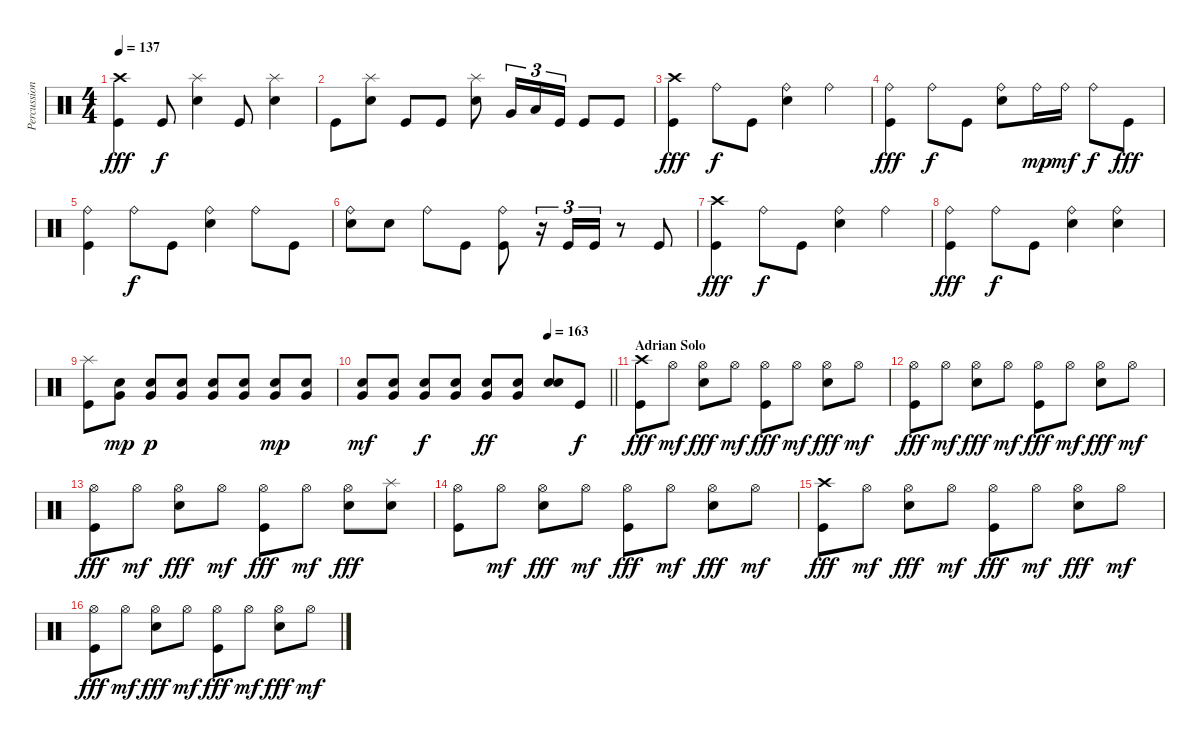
\track ("Percussion/Nicko McBrain" "Percussion") {instrument percussion}
\staff {score}
\articulation defaults
\ts (4 4)
\tempo 137
\clef neutral
\ks c
("Crash high (hit)" "Kick (hit)").4{dy fff} "Kick (hit)".8{dy f} ("Splash (hit)" "Electric Snare (hit)").4 "Kick (hit)".8 ("Splash (hit)" "Electric Snare (hit)").4 |
"Kick (hit)".8 ("Splash (hit)" "Electric Snare (hit)").8 "Kick (hit)".8 "Kick (hit)".8 ("Splash (hit)" "Electric Snare (hit)").8 "Very Low Tom (hit)".16{tu (3 2)} "Low Floor Tom (hit)".16{tu (3 2)} "Kick (hit)".16{tu (3 2)} "Kick (hit)".8 "Kick (hit)".8 |
("Crash high (hit)" "Kick (hit)").4{dy fff} "Ride (bell)".8{dy f} "Kick (hit)".8 ("Ride (bell)" "Electric Snare (hit)").4 "Ride (bell)".4 |
("Ride (bell)" "Kick (hit)").4{dy fff} "Ride (bell)".8{dy f} "Kick (hit)".8 ("Ride (bell)" "Electric Snare (hit)").8 "Ride (bell)".16{dy mp} "Ride (bell)".16{dy mf} "Ride (bell)".8{dy f} "Kick (hit)".8{dy fff} |
("Ride (bell)" "Kick (hit)").4 "Ride (bell)".8{dy f} "Kick (hit)".8 ("Ride (bell)" "Electric Snare (hit)").4 "Ride (bell)".8 "Kick (hit)".8 |
("Ride (bell)" "Electric Snare (hit)").8 "Electric Snare (hit)".8 "Ride (bell)".8 "Kick (hit)".8 ("Ride (bell)" "Kick (hit)").8 r.16{tu (3 2)} "Kick (hit)".16{tu (3 2)} "Kick (hit)".16{tu (3 2)} r.8 "Kick (hit)".8 |
("Crash high (hit)" "Kick (hit)").4{dy fff} "Ride (bell)".8{dy f} "Kick (hit)".8 ("Ride (bell)" "Electric Snare (hit)").4 "Ride (bell)".4 |
("Ride (bell)" "Kick (hit)").4{dy fff} "Ride (bell)".8{dy f} "Kick (hit)".8 ("Ride (bell)" "Electric Snare (hit)").4 ("Ride (bell)" "Electric Snare (hit)").4 |
("Splash (hit)" "Kick (hit)").8 ("Very Low Tom (hit)" "Electric Snare (hit)").8{dy mp} ("Very Low Tom (hit)" "Electric Snare (hit)").8{dy p} ("Very Low Tom (hit)" "Electric Snare (hit)").8 ("Very Low Tom (hit)" "Electric Snare (hit)").8 ("Very Low Tom (hit)" "Electric Snare (hit)").8 ("Very Low Tom (hit)" "Electric Snare (hit)").8{dy mp} ("Very Low Tom (hit)" "Electric Snare (hit)").8 |
\tempo (163 0.75)
\barLineRight lightlight
("Very Low Tom (hit)" "Electric Snare (hit)").8{dy mf} ("Very Low Tom (hit)" "Electric Snare (hit)").8 ("Very Low Tom (hit)" "Electric Snare (hit)").8{dy f} ("Very Low Tom (hit)" "Electric Snare (hit)").8 ("Very Low Tom (hit)" "Electric Snare (hit)").8{dy ff} ("Very Low Tom (hit)" "Electric Snare (hit)").8 ("Snare (hit) 2" "Electric Snare (hit)").8 "Kick (hit)".8{dy f} |
\section ("" "Adrian Solo")
("Crash high (hit)" "Kick (hit)").8{dy fff} "Hi-Hat (open)".8{dy mf} ("Hi-Hat (open)" "Electric Snare (hit)").8{dy fff} "Hi-Hat (open)".8{dy mf} ("Hi-Hat (open)" "Kick (hit)").8{dy fff} "Hi-Hat (open)".8{dy mf} ("Hi-Hat (open)" "Electric Snare (hit)").8{dy fff} "Hi-Hat (open)".8{dy mf} |
("Hi-Hat (open)" "Kick (hit)").8{dy fff} "Hi-Hat (open)".8{dy mf} ("Hi-Hat (open)" "Electric Snare (hit)").8{dy fff} "Hi-Hat (open)".8{dy mf} ("Hi-Hat (open)" "Kick (hit)").8{dy fff} "Hi-Hat (open)".8{dy mf} ("Hi-Hat (open)" "Electric Snare (hit)").8{dy fff} "Hi-Hat (open)".8{dy mf} |
("Hi-Hat (open)" "Kick (hit)").8{dy fff} "Hi-Hat (open)".8{dy mf} ("Hi-Hat (open)" "Electric Snare (hit)").8{dy fff} "Hi-Hat (open)".8{dy mf} ("Hi-Hat (open)" "Kick (hit)").8{dy fff} "Hi-Hat (open)".8{dy mf} ("Hi-Hat (open)" "Electric Snare (hit)").8{dy fff} ("Splash (hit)" "Electric Snare (hit)").8 |
("Hi-Hat (open)" "Kick (hit)").8 "Hi-Hat (open)".8{dy mf} ("Hi-Hat (open)" "Electric Snare (hit)").8{dy fff} "Hi-Hat (open)".8{dy mf} ("Hi-Hat (open)" "Kick (hit)").8{dy fff} "Hi-Hat (open)".8{dy mf} ("Hi-Hat (open)" "Electric Snare (hit)").8{dy fff} "Hi-Hat (open)".8{dy mf} |
("Crash high (hit)" "Kick (hit)").8{dy fff} "Hi-Hat (open)".8{dy mf} ("Hi-Hat (open)" "Electric Snare (hit)").8{dy fff} "Hi-Hat (open)".8{dy mf} ("Hi-Hat (open)" "Kick (hit)").8{dy fff} "Hi-Hat (open)".8{dy mf} ("Hi-Hat (open)" "Electric Snare (hit)").8{dy fff} "Hi-Hat (open)".8{dy mf} |
("Hi-Hat (open)" "Kick (hit)").8{dy fff} "Hi-Hat (open)".8{dy mf} ("Hi-Hat (open)" "Electric Snare (hit)").8{dy fff} "Hi-Hat (open)".8{dy mf} ("Hi-Hat (open)" "Kick (hit)").8{dy fff} "Hi-Hat (open)".8{dy mf} ("Hi-Hat (open)" "Electric Snare (hit)").8{dy fff} "Hi-Hat (open)".8{dy mf}
